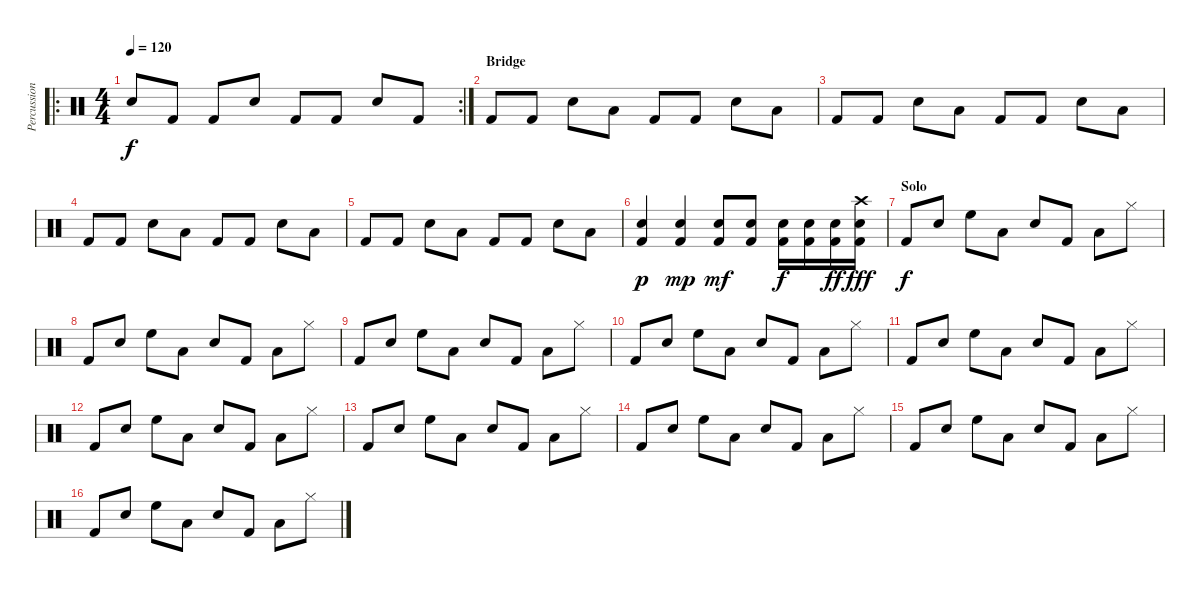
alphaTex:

\track ("Percussion" "Percussion") {instrument percussion}
\staff {score}
\articulation defaults
\ro
\rc 2
\ts (4 4)
\tempo 120
\clef neutral
\ks c "Snare (hit) 2".8{dy f} "Kick (hit) 2".8 "Kick (hit) 2".8 "Snare (hit) 2".8 "Kick (hit) 2".8 "Kick (hit) 2".8 "Snare (hit) 2".8 "Kick (hit) 2".8
|
\section ("" "Bridge")
"Kick (hit) 2".8 "Kick (hit) 2".8 "Snare (hit) 2".8 "Low Tom (hit)".8 "Kick (hit) 2".8 "Kick (hit) 2".8 "Snare (hit) 2".8 "Low Tom (hit)".8 |
"Kick (hit) 2".8 "Kick (hit) 2".8 "Snare (hit) 2".8 "Low Tom (hit)".8 "Kick (hit) 2".8 "Kick (hit) 2".8 "Snare (hit) 2".8 "Low Tom (hit)".8 |
"Kick (hit) 2".8 "Kick (hit) 2".8 "Snare (hit) 2".8 "Low Tom (hit)".8 "Kick (hit) 2".8 "Kick (hit) 2".8 "Snare (hit) 2".8 "Low Tom (hit)".8 |
"Kick (hit) 2".8 "Kick (hit) 2".8 "Snare (hit) 2".8 "Low Tom (hit)".8 "Kick (hit) 2".8 "Kick (hit) 2".8 "Snare (hit) 2".8 "Low Tom (hit)".8 |
("Snare (hit) 2" "Kick (hit) 2").4{dy p} ("Snare (hit) 2" "Kick (hit) 2").4{dy mp} ("Snare (hit) 2" "Kick (hit) 2").8{dy mf} ("Snare (hit) 2" "Kick (hit) 2").8 ("Snare (hit) 2" "Kick (hit) 2").16{dy f} ("Snare (hit) 2" "Kick (hit) 2").16 ("Snare (hit) 2" "Kick (hit) 2").16{dy ff} ("Crash high (hit)" "Snare (hit) 2" "Kick (hit) 2").16{dy fff} |
\section ("" "Solo")
"Kick (hit) 2".8{dy f} "Snare (hit) 2".8 "High Floor Tom (hit)".8 "Low Floor Tom (hit)".8 "Snare (hit) 2".8 "Kick (hit) 2".8 "Low Floor Tom (hit)".8 "Hi-Hat (closed)".8 |
"Kick (hit) 2".8 "Snare (hit) 2".8 "High Floor Tom (hit)".8 "Low Floor Tom (hit)".8 "Snare (hit) 2".8 "Kick (hit) 2".8 "Low Floor Tom (hit)".8 "Hi-Hat (closed)".8 |
"Kick (hit) 2".8 "Snare (hit) 2".8 "High Floor Tom (hit)".8 "Low Floor Tom (hit)".8 "Snare (hit) 2".8 "Kick (hit) 2".8 "Low Floor Tom (hit)".8 "Hi-Hat (closed)".8 |
"Kick (hit) 2".8 "Snare (hit) 2".8 "High Floor Tom (hit)".8 "Low Floor Tom (hit)".8 "Snare (hit) 2".8 "Kick (hit) 2".8 "Low Floor Tom (hit)".8 "Hi-Hat (closed)".8 |
"Kick (hit) 2".8 "Snare (hit) 2".8 "High Floor Tom (hit)".8 "Low Floor Tom (hit)".8 "Snare (hit) 2".8 "Kick (hit) 2".8 "Low Floor Tom (hit)".8 "Hi-Hat (closed)".8 |
"Kick (hit) 2".8 "Snare (hit) 2".8 "High Floor Tom (hit)".8 "Low Floor Tom (hit)".8 "Snare (hit) 2".8 "Kick (hit) 2".8 "Low Floor Tom (hit)".8 "Hi-Hat (closed)".8 |
"Kick (hit) 2".8 "Snare (hit) 2".8 "High Floor Tom (hit)".8 "Low Floor Tom (hit)".8 "Snare (hit) 2".8 "Kick (hit) 2".8 "Low Floor Tom (hit)".8 "Hi-Hat (closed)".8 |
"Kick (hit) 2".8 "Snare (hit) 2".8 "High Floor Tom (hit)".8 "Low Floor Tom (hit)".8 "Snare (hit) 2".8 "Kick (hit) 2".8 "Low Floor Tom (hit)".8 "Hi-Hat (closed)".8 |
"Kick (hit) 2".8 "Snare (hit) 2".8 "High Floor Tom (hit)".8 "Low Floor Tom (hit)".8 "Snare (hit) 2".8 "Kick (hit) 2".8 "Low Floor Tom (hit)".8 "Hi-Hat (closed)".8 |
"Kick (hit) 2".8 "Snare (hit) 2".8 "High Floor Tom (hit)".8 "Low Floor Tom (hit)".8 "Snare (hit) 2".8 "Kick (hit) 2".8 "Low Floor Tom (hit)".8 "Hi-Hat (closed)".8
